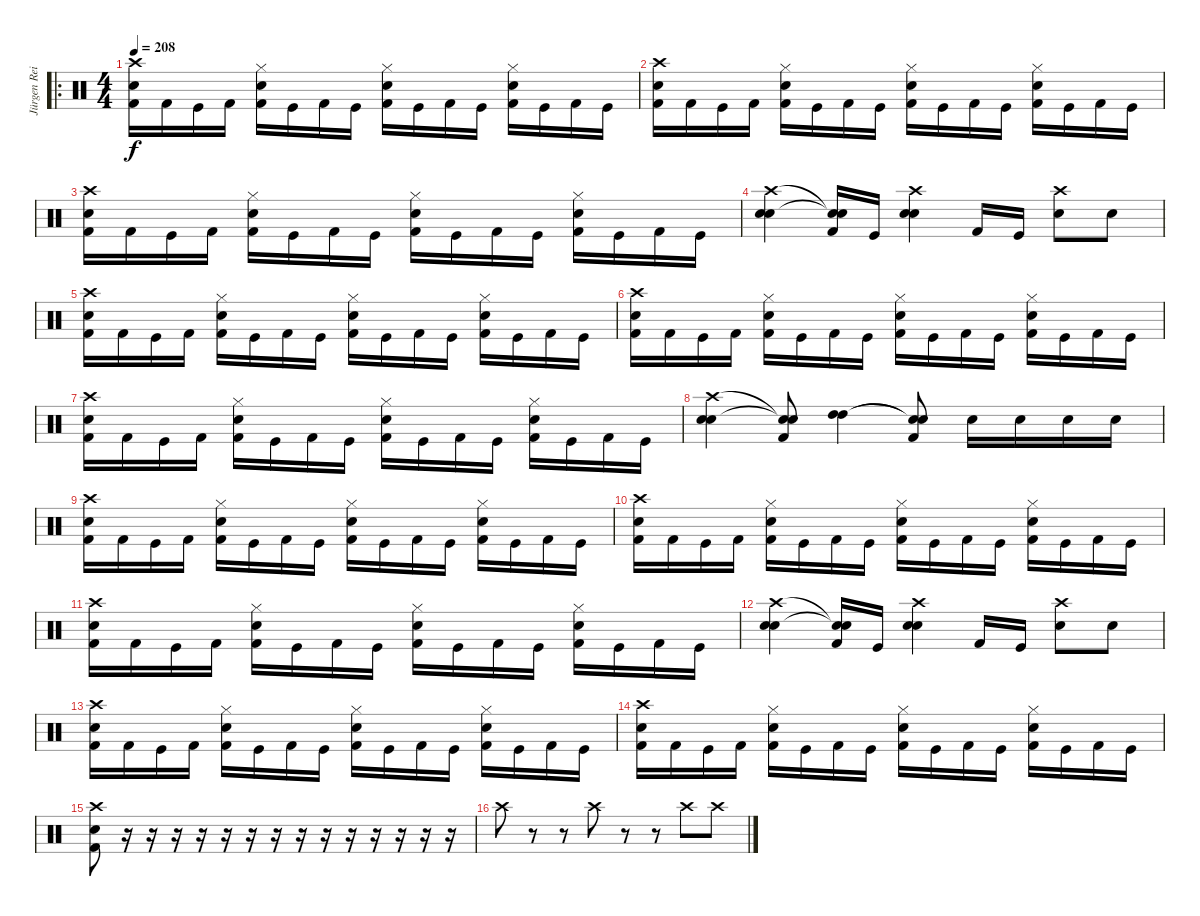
\track ("Jürgen Reil" "Jürgen Rei") {instrument percussion}
\staff {score}
\articulation defaults
\ro
\ts (4 4)
\tempo 208
\clef neutral
\ks c
("Crash high (hit)" "Electric Snare (hit)" "Kick (hit) 2").16{dy f} "Kick (hit) 2".16 "Kick (hit)".16 "Kick (hit) 2".16 ("Hi-Hat (closed)" "Electric Snare (hit)" "Kick (hit) 2").16 "Kick (hit)".16 "Kick (hit) 2".16 "Kick (hit)".16 ("Hi-Hat (closed)" "Electric Snare (hit)" "Kick (hit) 2").16 "Kick (hit)".16 "Kick (hit) 2".16 "Kick (hit)".16 ("Hi-Hat (closed)" "Electric Snare (hit)" "Kick (hit) 2").16 "Kick (hit)".16 "Kick (hit) 2".16 "Kick (hit)".16 |
("Crash high (hit)" "Electric Snare (hit)" "Kick (hit) 2").16 "Kick (hit) 2".16 "Kick (hit)".16 "Kick (hit) 2".16 ("Hi-Hat (closed)" "Electric Snare (hit)" "Kick (hit) 2").16 "Kick (hit)".16 "Kick (hit) 2".16 "Kick (hit)".16 ("Hi-Hat (closed)" "Electric Snare (hit)" "Kick (hit) 2").16 "Kick (hit)".16 "Kick (hit) 2".16 "Kick (hit)".16 ("Hi-Hat (closed)" "Electric Snare (hit)" "Kick (hit) 2").16 "Kick (hit)".16 "Kick (hit) 2".16 "Kick (hit)".16 |
("Crash high (hit)" "Electric Snare (hit)" "Kick (hit) 2").16 "Kick (hit) 2".16 "Kick (hit)".16 "Kick (hit) 2".16 ("Hi-Hat (closed)" "Electric Snare (hit)" "Kick (hit) 2").16 "Kick (hit)".16 "Kick (hit) 2".16 "Kick (hit)".16 ("Hi-Hat (closed)" "Electric Snare (hit)" "Kick (hit) 2").16 "Kick (hit)".16 "Kick (hit) 2".16 "Kick (hit)".16 ("Hi-Hat (closed)" "Electric Snare (hit)" "Kick (hit) 2").16 "Kick (hit)".16 "Kick (hit) 2".16 "Kick (hit)".16 |
("Crash high (hit)" "Electric Snare (hit)" "Electric Snare (hit)").4 ("Snare (hit)"{t} "Snare (hit)"{t} "Kick (hit) 2").16 "Kick (hit)".16 ("Crash high (hit)" "Electric Snare (hit)" "Electric Snare (hit)").4 "Kick (hit) 2".16 "Kick (hit)".16 ("Crash high (hit)" "Electric Snare (hit)").8 "Electric Snare (hit)".8 |
("Crash high (hit)" "Electric Snare (hit)" "Kick (hit) 2").16 "Kick (hit) 2".16 "Kick (hit)".16 "Kick (hit) 2".16 ("Hi-Hat (closed)" "Electric Snare (hit)" "Kick (hit) 2").16 "Kick (hit)".16 "Kick (hit) 2".16 "Kick (hit)".16 ("Hi-Hat (closed)" "Electric Snare (hit)" "Kick (hit) 2").16 "Kick (hit)".16 "Kick (hit) 2".16 "Kick (hit)".16 ("Hi-Hat (closed)" "Electric Snare (hit)" "Kick (hit) 2").16 "Kick (hit)".16 "Kick (hit) 2".16 "Kick (hit)".16 |
("Crash high (hit)" "Electric Snare (hit)" "Kick (hit) 2").16 "Kick (hit) 2".16 "Kick (hit)".16 "Kick (hit) 2".16 ("Hi-Hat (closed)" "Electric Snare (hit)" "Kick (hit) 2").16 "Kick (hit)".16 "Kick (hit) 2".16 "Kick (hit)".16 ("Hi-Hat (closed)" "Electric Snare (hit)" "Kick (hit) 2").16 "Kick (hit)".16 "Kick (hit) 2".16 "Kick (hit)".16 ("Hi-Hat (closed)" "Electric Snare (hit)" "Kick (hit) 2").16 "Kick (hit)".16 "Kick (hit) 2".16 "Kick (hit)".16 |
("Crash high (hit)" "Electric Snare (hit)" "Kick (hit) 2").16 "Kick (hit) 2".16 "Kick (hit)".16 "Kick (hit) 2".16 ("Hi-Hat (closed)" "Electric Snare (hit)" "Kick (hit) 2").16 "Kick (hit)".16 "Kick (hit) 2".16 "Kick (hit)".16 ("Hi-Hat (closed)" "Electric Snare (hit)" "Kick (hit) 2").16 "Kick (hit)".16 "Kick (hit) 2".16 "Kick (hit)".16 ("Hi-Hat (closed)" "Electric Snare (hit)" "Kick (hit) 2").16 "Kick (hit)".16 "Kick (hit) 2".16 "Kick (hit)".16 |
("Crash high (hit)" "Electric Snare (hit)" "Electric Snare (hit)").4 ("Snare (hit)"{t} "Snare (hit)"{t} "Kick (hit) 2").8 ("High Tom (hit)" "High Tom (hit)").4 ("Snare (hit)"{t} "Snare (hit)"{t} "Kick (hit) 2").8 "Electric Snare (hit)".16 "Electric Snare (hit)".16 "Electric Snare (hit)".16 "Electric Snare (hit)".16 |
("Crash high (hit)" "Electric Snare (hit)" "Kick (hit) 2").16 "Kick (hit) 2".16 "Kick (hit)".16 "Kick (hit) 2".16 ("Hi-Hat (closed)" "Electric Snare (hit)" "Kick (hit) 2").16 "Kick (hit)".16 "Kick (hit) 2".16 "Kick (hit)".16 ("Hi-Hat (closed)" "Electric Snare (hit)" "Kick (hit) 2").16 "Kick (hit)".16 "Kick (hit) 2".16 "Kick (hit)".16 ("Hi-Hat (closed)" "Electric Snare (hit)" "Kick (hit) 2").16 "Kick (hit)".16 "Kick (hit) 2".16 "Kick (hit)".16 |
("Crash high (hit)" "Electric Snare (hit)" "Kick (hit) 2").16 "Kick (hit) 2".16 "Kick (hit)".16 "Kick (hit) 2".16 ("Hi-Hat (closed)" "Electric Snare (hit)" "Kick (hit) 2").16 "Kick (hit)".16 "Kick (hit) 2".16 "Kick (hit)".16 ("Hi-Hat (closed)" "Electric Snare (hit)" "Kick (hit) 2").16 "Kick (hit)".16 "Kick (hit) 2".16 "Kick (hit)".16 ("Hi-Hat (closed)" "Electric Snare (hit)" "Kick (hit) 2").16 "Kick (hit)".16 "Kick (hit) 2".16 "Kick (hit)".16 |
("Crash high (hit)" "Electric Snare (hit)" "Kick (hit) 2").16 "Kick (hit) 2".16 "Kick (hit)".16 "Kick (hit) 2".16 ("Hi-Hat (closed)" "Electric Snare (hit)" "Kick (hit) 2").16 "Kick (hit)".16 "Kick (hit) 2".16 "Kick (hit)".16 ("Hi-Hat (closed)" "Electric Snare (hit)" "Kick (hit) 2").16 "Kick (hit)".16 "Kick (hit) 2".16 "Kick (hit)".16 ("Hi-Hat (closed)" "Electric Snare (hit)" "Kick (hit) 2").16 "Kick (hit)".16 "Kick (hit) 2".16 "Kick (hit)".16 |
("Crash high (hit)" "Electric Snare (hit)" "Electric Snare (hit)").4 ("Snare (hit)"{t} "Snare (hit)"{t} "Kick (hit) 2").16 "Kick (hit)".16 ("Crash high (hit)" "Electric Snare (hit)" "Electric Snare (hit)").4 "Kick (hit) 2".16 "Kick (hit)".16 ("Crash high (hit)" "Electric Snare (hit)").8 "Electric Snare (hit)".8 |
("Crash high (hit)" "Electric Snare (hit)" "Kick (hit) 2").16 "Kick (hit) 2".16 "Kick (hit)".16 "Kick (hit) 2".16 ("Hi-Hat (closed)" "Electric Snare (hit)" "Kick (hit) 2").16 "Kick (hit)".16 "Kick (hit) 2".16 "Kick (hit)".16 ("Hi-Hat (closed)" "Electric Snare (hit)" "Kick (hit) 2").16 "Kick (hit)".16 "Kick (hit) 2".16 "Kick (hit)".16 ("Hi-Hat (closed)" "Electric Snare (hit)" "Kick (hit) 2").16 "Kick (hit)".16 "Kick (hit) 2".16 "Kick (hit)".16 |
("Crash high (hit)" "Electric Snare (hit)" "Kick (hit) 2").16 "Kick (hit) 2".16 "Kick (hit)".16 "Kick (hit) 2".16 ("Hi-Hat (closed)" "Electric Snare (hit)" "Kick (hit) 2").16 "Kick (hit)".16 "Kick (hit) 2".16 "Kick (hit)".16 ("Hi-Hat (closed)" "Electric Snare (hit)" "Kick (hit) 2").16 "Kick (hit)".16 "Kick (hit) 2".16 "Kick (hit)".16 ("Hi-Hat (closed)" "Electric Snare (hit)" "Kick (hit) 2").16 "Kick (hit)".16 "Kick (hit) 2".16 "Kick (hit)".16 |
("Crash high (hit)" "Electric Snare (hit)" "Kick (hit) 2").8 r.16 r.16 r.16 r.16 r.16 r.16 r.16 r.16 r.16 r.16 r.16 r.16 r.16 r.16 |
"Crash high (hit)".8 r.8 r.8 "Crash high (hit)".8 r.8 r.8 "Crash high (hit)".8 "Crash high (hit)".8
